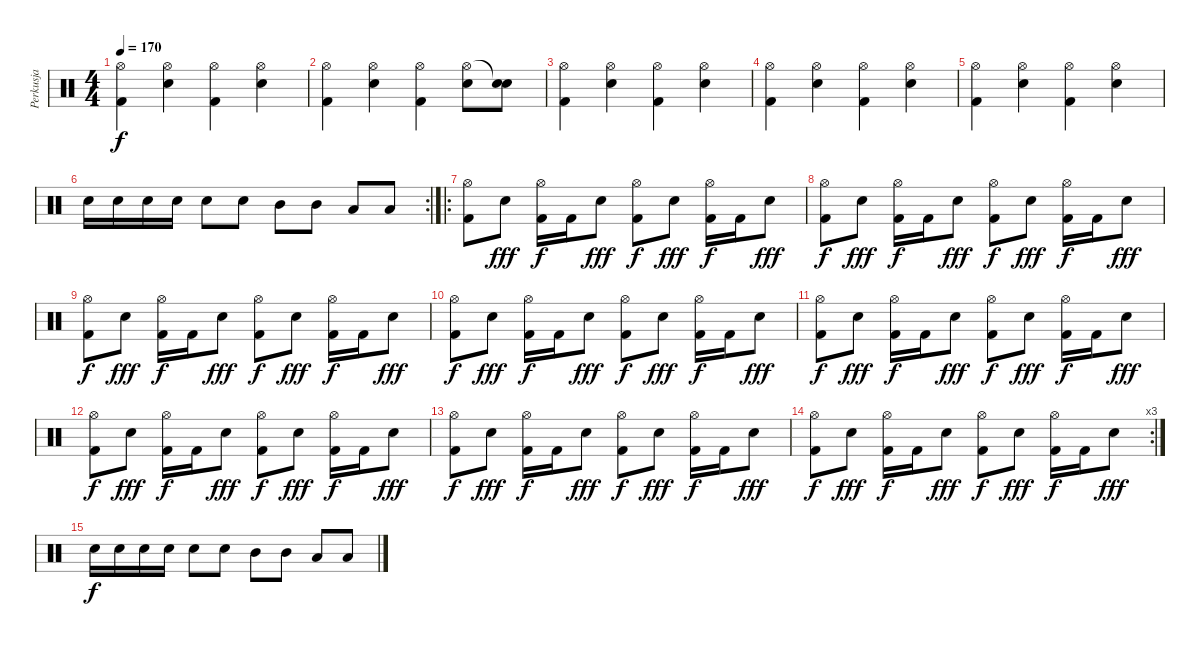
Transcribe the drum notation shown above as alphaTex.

\track ("Perkusja" "Perkusja") {instrument percussion}
\staff {score}
\articulation defaults
\ts (4 4)
\tempo 170
\clef neutral
\ks c
("Hi-Hat (open)" "Kick (hit) 2").4{dy f} ("Hi-Hat (open)" "Snare (hit) 2").4 ("Hi-Hat (open)" "Kick (hit) 2").4 ("Hi-Hat (open)" "Snare (hit) 2").4 |
("Hi-Hat (open)" "Kick (hit) 2").4 ("Hi-Hat (open)" "Snare (hit) 2").4 ("Hi-Hat (open)" "Kick (hit) 2").4 ("Hi-Hat (open)" "Snare (hit) 2").8 ("Snare (hit)"{t} "Snare (hit) 2").8 |
("Hi-Hat (open)" "Kick (hit) 2").4 ("Hi-Hat (open)" "Snare (hit) 2").4 ("Hi-Hat (open)" "Kick (hit) 2").4 ("Hi-Hat (open)" "Snare (hit) 2").4 |
("Hi-Hat (open)" "Kick (hit) 2").4 ("Hi-Hat (open)" "Snare (hit) 2").4 ("Hi-Hat (open)" "Kick (hit) 2").4 ("Hi-Hat (open)" "Snare (hit) 2").4 |
("Hi-Hat (open)" "Kick (hit) 2").4 ("Hi-Hat (open)" "Snare (hit) 2").4 ("Hi-Hat (open)" "Kick (hit) 2").4 ("Hi-Hat (open)" "Snare (hit) 2").4 |
\rc 2 "Snare (hit) 2".16 "Snare (hit) 2".16 "Snare (hit) 2".16 "Snare (hit) 2".16 "Snare (hit) 2".8 "Snare (hit) 2".8 "Mid Tom (hit)".8 "Mid Tom (hit)".8 "Low Tom (hit)".8 "Low Tom (hit)".8
|
\ro
("Hi-Hat (open)" "Kick (hit) 2").8 "Snare (hit) 2".8{dy fff} ("Hi-Hat (open)" "Kick (hit) 2").16{dy f} "Kick (hit) 2".16 "Snare (hit) 2".8{dy fff} ("Hi-Hat (open)" "Kick (hit) 2").8{dy f} "Snare (hit) 2".8{dy fff} ("Hi-Hat (open)" "Kick (hit) 2").16{dy f} "Kick (hit) 2".16 "Snare (hit) 2".8{dy fff} |
("Hi-Hat (open)" "Kick (hit) 2").8{dy f} "Snare (hit) 2".8{dy fff} ("Hi-Hat (open)" "Kick (hit) 2").16{dy f} "Kick (hit) 2".16 "Snare (hit) 2".8{dy fff} ("Hi-Hat (open)" "Kick (hit) 2").8{dy f} "Snare (hit) 2".8{dy fff} ("Hi-Hat (open)" "Kick (hit) 2").16{dy f} "Kick (hit) 2".16 "Snare (hit) 2".8{dy fff} |
("Hi-Hat (open)" "Kick (hit) 2").8{dy f} "Snare (hit) 2".8{dy fff} ("Hi-Hat (open)" "Kick (hit) 2").16{dy f} "Kick (hit) 2".16 "Snare (hit) 2".8{dy fff} ("Hi-Hat (open)" "Kick (hit) 2").8{dy f} "Snare (hit) 2".8{dy fff} ("Hi-Hat (open)" "Kick (hit) 2").16{dy f} "Kick (hit) 2".16 "Snare (hit) 2".8{dy fff} |
("Hi-Hat (open)" "Kick (hit) 2").8{dy f} "Snare (hit) 2".8{dy fff} ("Hi-Hat (open)" "Kick (hit) 2").16{dy f} "Kick (hit) 2".16 "Snare (hit) 2".8{dy fff} ("Hi-Hat (open)" "Kick (hit) 2").8{dy f} "Snare (hit) 2".8{dy fff} ("Hi-Hat (open)" "Kick (hit) 2").16{dy f} "Kick (hit) 2".16 "Snare (hit) 2".8{dy fff} |
("Hi-Hat (open)" "Kick (hit) 2").8{dy f} "Snare (hit) 2".8{dy fff} ("Hi-Hat (open)" "Kick (hit) 2").16{dy f} "Kick (hit) 2".16 "Snare (hit) 2".8{dy fff} ("Hi-Hat (open)" "Kick (hit) 2").8{dy f} "Snare (hit) 2".8{dy fff} ("Hi-Hat (open)" "Kick (hit) 2").16{dy f} "Kick (hit) 2".16 "Snare (hit) 2".8{dy fff} |
("Hi-Hat (open)" "Kick (hit) 2").8{dy f} "Snare (hit) 2".8{dy fff} ("Hi-Hat (open)" "Kick (hit) 2").16{dy f} "Kick (hit) 2".16 "Snare (hit) 2".8{dy fff} ("Hi-Hat (open)" "Kick (hit) 2").8{dy f} "Snare (hit) 2".8{dy fff} ("Hi-Hat (open)" "Kick (hit) 2").16{dy f} "Kick (hit) 2".16 "Snare (hit) 2".8{dy fff} |
("Hi-Hat (open)" "Kick (hit) 2").8{dy f} "Snare (hit) 2".8{dy fff} ("Hi-Hat (open)" "Kick (hit) 2").16{dy f} "Kick (hit) 2".16 "Snare (hit) 2".8{dy fff} ("Hi-Hat (open)" "Kick (hit) 2").8{dy f} "Snare (hit) 2".8{dy fff} ("Hi-Hat (open)" "Kick (hit) 2").16{dy f} "Kick (hit) 2".16 "Snare (hit) 2".8{dy fff} |
\rc 3
("Hi-Hat (open)" "Kick (hit) 2").8{dy f} "Snare (hit) 2".8{dy fff} ("Hi-Hat (open)" "Kick (hit) 2").16{dy f} "Kick (hit) 2".16 "Snare (hit) 2".8{dy fff} ("Hi-Hat (open)" "Kick (hit) 2").8{dy f} "Snare (hit) 2".8{dy fff} ("Hi-Hat (open)" "Kick (hit) 2").16{dy f} "Kick (hit) 2".16 "Snare (hit) 2".8{dy fff} |
"Snare (hit) 2".16{dy f} "Snare (hit) 2".16 "Snare (hit) 2".16 "Snare (hit) 2".16 "Snare (hit) 2".8 "Snare (hit) 2".8 "Mid Tom (hit)".8 "Mid Tom (hit)".8 "Low Tom (hit)".8 "Low Tom (hit)".8
